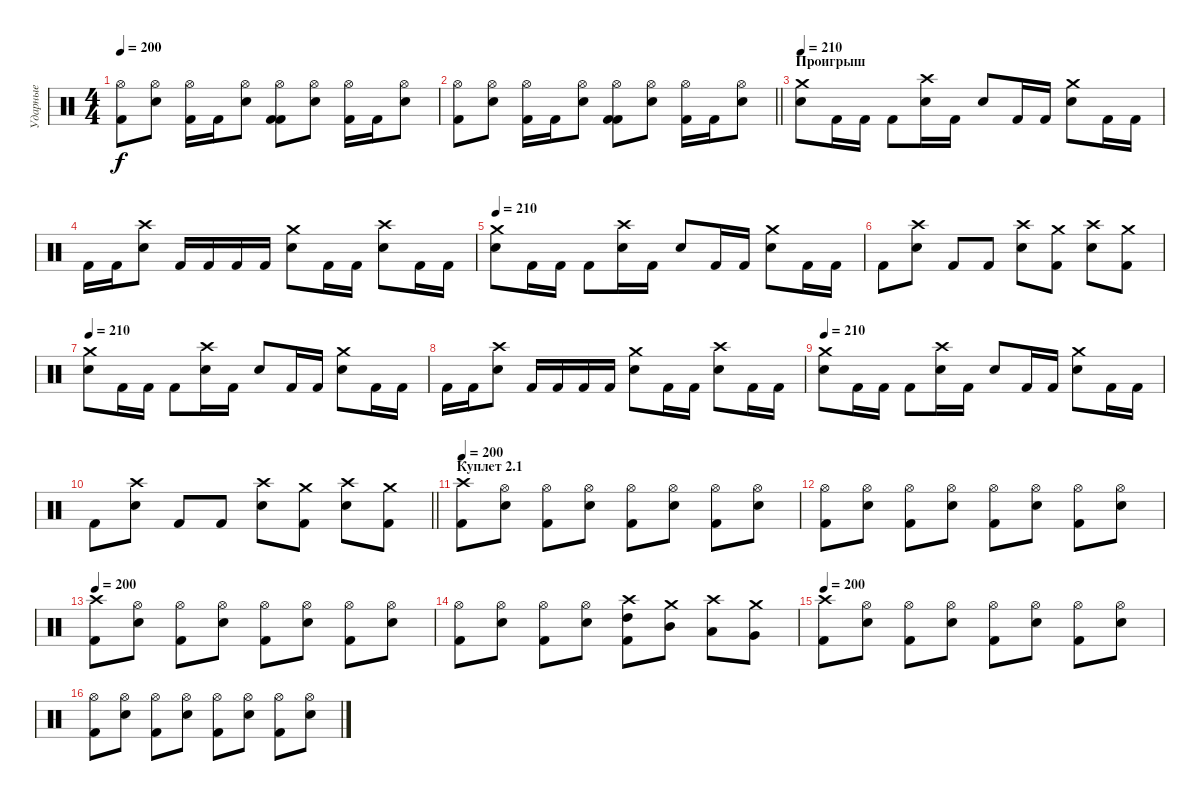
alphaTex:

\track ("Ударные" "Ударные") {instrument percussion}
\staff {score}
\articulation defaults
\ts (4 4)
\tempo 200
\clef neutral
\ks c
("Kick (hit) 2" "Hi-Hat (open)").8{dy f} ("Hi-Hat (open)" "Electric Snare (hit)").8 ("Kick (hit) 2" "Hi-Hat (open)").16 "Kick (hit) 2".16 ("Hi-Hat (open)" "Electric Snare (hit)").8 ("Kick (hit) 2" "Kick (hit) 2" "Hi-Hat (open)").8 ("Hi-Hat (open)" "Electric Snare (hit)").8 ("Kick (hit) 2" "Hi-Hat (open)").16 "Kick (hit) 2".16 ("Hi-Hat (open)" "Electric Snare (hit)").8 |
\barLineRight lightlight
("Kick (hit) 2" "Hi-Hat (open)").8 ("Hi-Hat (open)" "Electric Snare (hit)").8 ("Kick (hit) 2" "Hi-Hat (open)").16 "Kick (hit) 2".16 ("Hi-Hat (open)" "Electric Snare (hit)").8 ("Kick (hit) 2" "Kick (hit) 2" "Hi-Hat (open)").8 ("Hi-Hat (open)" "Electric Snare (hit)").8 ("Kick (hit) 2" "Hi-Hat (open)").16 "Kick (hit) 2".16 ("Hi-Hat (open)" "Electric Snare (hit)").8 |
\section ("" "Проигрыш")
\tempo 210
("Snare (hit) 2" "Crash medium (hit)").8 "Kick (hit) 2".16 "Kick (hit) 2".16 "Kick (hit) 2".8 ("Snare (hit) 2" "Crash high (hit)").16 "Kick (hit) 2".16 "Snare (hit) 2".8 "Kick (hit) 2".16 "Kick (hit) 2".16 ("Snare (hit) 2" "Crash medium (hit)").8 "Kick (hit) 2".16 "Kick (hit) 2".16 |
"Kick (hit) 2".16 "Kick (hit) 2".16 ("Snare (hit) 2" "Crash high (hit)").8 "Kick (hit) 2".16 "Kick (hit) 2".16 "Kick (hit) 2".16 "Kick (hit) 2".16 ("Snare (hit) 2" "Crash medium (hit)").8 "Kick (hit) 2".16 "Kick (hit) 2".16 ("Snare (hit) 2" "Crash high (hit)").8 "Kick (hit) 2".16 "Kick (hit) 2".16 |
\tempo 210
("Snare (hit) 2" "Crash medium (hit)").8 "Kick (hit) 2".16 "Kick (hit) 2".16 "Kick (hit) 2".8 ("Snare (hit) 2" "Crash high (hit)").16 "Kick (hit) 2".16 "Snare (hit) 2".8 "Kick (hit) 2".16 "Kick (hit) 2".16 ("Snare (hit) 2" "Crash medium (hit)").8 "Kick (hit) 2".16 "Kick (hit) 2".16 |
"Kick (hit) 2".8 ("Snare (hit) 2" "Crash high (hit)").8 "Kick (hit) 2".8 "Kick (hit) 2".8 ("Snare (hit) 2" "Crash high (hit)").8 ("Kick (hit) 2" "Crash medium (hit)").8 ("Snare (hit) 2" "Crash high (hit)").8 ("Kick (hit) 2" "Crash medium (hit)").8 |
\tempo 210
("Snare (hit) 2" "Crash medium (hit)").8 "Kick (hit) 2".16 "Kick (hit) 2".16 "Kick (hit) 2".8 ("Snare (hit) 2" "Crash high (hit)").16 "Kick (hit) 2".16 "Snare (hit) 2".8 "Kick (hit) 2".16 "Kick (hit) 2".16 ("Snare (hit) 2" "Crash medium (hit)").8 "Kick (hit) 2".16 "Kick (hit) 2".16 |
"Kick (hit) 2".16 "Kick (hit) 2".16 ("Snare (hit) 2" "Crash high (hit)").8 "Kick (hit) 2".16 "Kick (hit) 2".16 "Kick (hit) 2".16 "Kick (hit) 2".16 ("Snare (hit) 2" "Crash medium (hit)").8 "Kick (hit) 2".16 "Kick (hit) 2".16 ("Snare (hit) 2" "Crash high (hit)").8 "Kick (hit) 2".16 "Kick (hit) 2".16 |
\tempo 210
("Snare (hit) 2" "Crash medium (hit)").8 "Kick (hit) 2".16 "Kick (hit) 2".16 "Kick (hit) 2".8 ("Snare (hit) 2" "Crash high (hit)").16 "Kick (hit) 2".16 "Snare (hit) 2".8 "Kick (hit) 2".16 "Kick (hit) 2".16 ("Snare (hit) 2" "Crash medium (hit)").8 "Kick (hit) 2".16 "Kick (hit) 2".16 |
\barLineRight lightlight "Kick (hit) 2".8
("Snare (hit) 2" "Crash high (hit)").8 "Kick (hit) 2".8 "Kick (hit) 2".8 ("Snare (hit) 2" "Crash high (hit)").8 ("Kick (hit) 2" "Crash medium (hit)").8 ("Snare (hit) 2" "Crash high (hit)").8 ("Kick (hit) 2" "Crash medium (hit)").8 |
\section ("" "Куплет 2.1")
\tempo 200
("Crash high (hit)" "Kick (hit) 2").8 ("Hi-Hat (open)" "Snare (hit) 2").8 ("Hi-Hat (open)" "Kick (hit) 2").8 ("Hi-Hat (open)" "Snare (hit) 2").8 ("Hi-Hat (open)" "Kick (hit) 2").8 ("Hi-Hat (open)" "Snare (hit) 2").8 ("Hi-Hat (open)" "Kick (hit) 2").8 ("Hi-Hat (open)" "Snare (hit) 2").8 |
("Hi-Hat (open)" "Kick (hit) 2").8 ("Hi-Hat (open)" "Snare (hit) 2").8 ("Hi-Hat (open)" "Kick (hit) 2").8 ("Hi-Hat (open)" "Snare (hit) 2").8 ("Hi-Hat (open)" "Kick (hit) 2").8 ("Hi-Hat (open)" "Snare (hit) 2").8 ("Hi-Hat (open)" "Kick (hit) 2").8 ("Hi-Hat (open)" "Snare (hit) 2").8 |
\tempo 200
("Crash high (hit)" "Kick (hit) 2").8 ("Hi-Hat (open)" "Snare (hit) 2").8 ("Hi-Hat (open)" "Kick (hit) 2").8 ("Hi-Hat (open)" "Snare (hit) 2").8 ("Hi-Hat (open)" "Kick (hit) 2").8 ("Hi-Hat (open)" "Snare (hit) 2").8 ("Hi-Hat (open)" "Kick (hit) 2").8 ("Hi-Hat (open)" "Snare (hit) 2").8 |
("Hi-Hat (open)" "Kick (hit) 2").8 ("Hi-Hat (open)" "Snare (hit) 2").8 ("Hi-Hat (open)" "Kick (hit) 2").8 ("Hi-Hat (open)" "Snare (hit) 2").8 ("Crash high (hit)" "High Tom (hit)" "Kick (hit) 2").8 ("Crash medium (hit)" "Mid Tom (hit)").8 ("Crash high (hit)" "Low Tom (hit)").8 ("Crash medium (hit)" "Very Low Tom (hit)").8 |
\tempo 200
("Crash high (hit)" "Kick (hit) 2").8 ("Hi-Hat (open)" "Snare (hit) 2").8 ("Hi-Hat (open)" "Kick (hit) 2").8 ("Hi-Hat (open)" "Snare (hit) 2").8 ("Hi-Hat (open)" "Kick (hit) 2").8 ("Hi-Hat (open)" "Snare (hit) 2").8 ("Hi-Hat (open)" "Kick (hit) 2").8 ("Hi-Hat (open)" "Snare (hit) 2").8 |
("Hi-Hat (open)" "Kick (hit) 2").8 ("Hi-Hat (open)" "Snare (hit) 2").8 ("Hi-Hat (open)" "Kick (hit) 2").8 ("Hi-Hat (open)" "Snare (hit) 2").8 ("Hi-Hat (open)" "Kick (hit) 2").8 ("Hi-Hat (open)" "Snare (hit) 2").8 ("Hi-Hat (open)" "Kick (hit) 2").8 ("Hi-Hat (open)" "Snare (hit) 2").8
